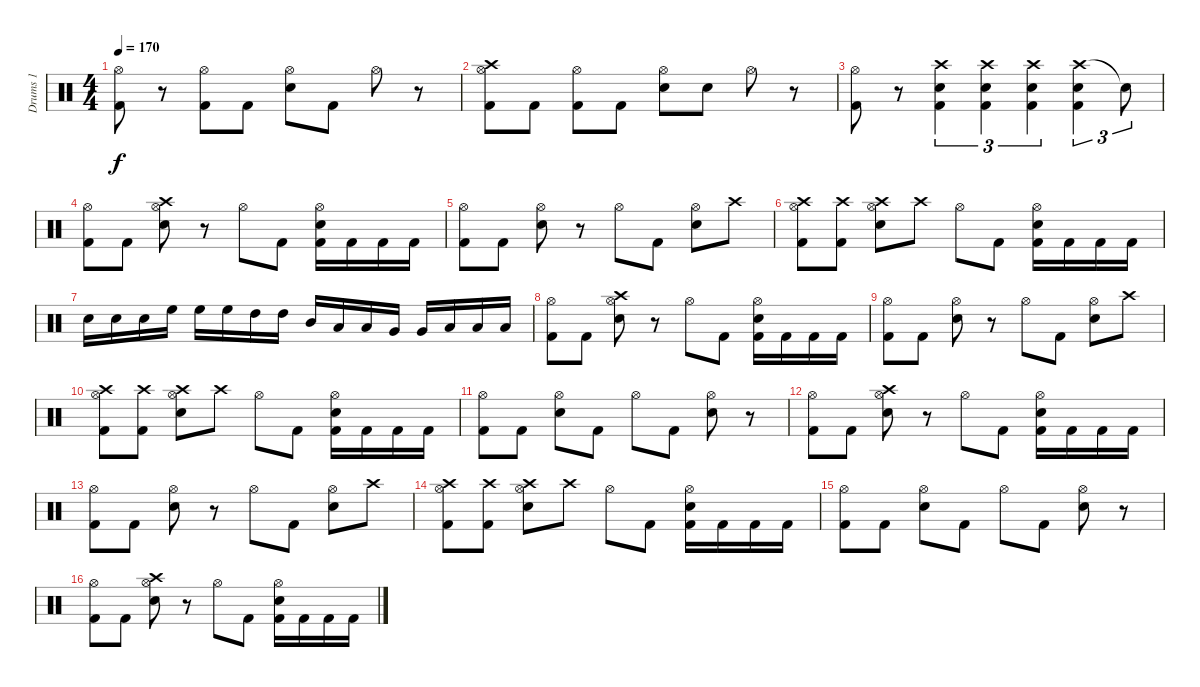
\track ("Drums 1" "Drums 1") {instrument percussion}
\staff {score}
\articulation defaults
\ts (4 4)
\tempo 170
\clef neutral
\ks c
("Hi-Hat (open)" "Kick (hit) 2").8{dy f} r.8 ("Hi-Hat (open)" "Kick (hit) 2").8 "Kick (hit) 2".8 ("Hi-Hat (open)" "Snare (hit) 2").8 "Kick (hit) 2".8 "Hi-Hat (open)".8 r.8 |
("Crash high (hit)" "Hi-Hat (open)" "Kick (hit) 2").8 "Kick (hit) 2".8 ("Hi-Hat (open)" "Kick (hit) 2").8 "Kick (hit) 2".8 ("Hi-Hat (open)" "Snare (hit) 2").8 "Snare (hit) 2".8 "Hi-Hat (open)".8 r.8 |
("Hi-Hat (open)" "Kick (hit) 2").8 r.8 ("Crash high (hit)" "Snare (hit) 2" "Kick (hit) 2").4{tu (3 2)} ("Crash high (hit)" "Snare (hit) 2" "Kick (hit) 2").4{tu (3 2)} ("Crash high (hit)" "Snare (hit) 2" "Kick (hit) 2").4{tu (3 2)} ("Crash high (hit)" "Snare (hit) 2" "Kick (hit) 2").4{tu (3 2)} "Snare (hit)"{t}.8{tu (3 2)} |
("Hi-Hat (open)" "Kick (hit) 2").8 "Kick (hit) 2".8 ("Crash high (hit)" "Hi-Hat (open)" "Electric Snare (hit)").8 r.8 "Hi-Hat (open)".8 "Kick (hit) 2".8 ("Hi-Hat (open)" "Electric Snare (hit)" "Kick (hit) 2").16 "Kick (hit) 2".16 "Kick (hit) 2".16 "Kick (hit) 2".16 |
("Hi-Hat (open)" "Kick (hit) 2").8 "Kick (hit) 2".8 ("Hi-Hat (open)" "Electric Snare (hit)").8 r.8 "Hi-Hat (open)".8 "Kick (hit) 2".8 ("Hi-Hat (open)" "Electric Snare (hit)").8 "Crash high (hit)".8 |
("Crash high (hit)" "Hi-Hat (open)" "Kick (hit) 2").8 ("Crash high (hit)" "Kick (hit) 2").8 ("Crash high (hit)" "Hi-Hat (open)" "Electric Snare (hit)").8 "Crash high (hit)".8 "Hi-Hat (open)".8 "Kick (hit) 2".8 ("Hi-Hat (open)" "Electric Snare (hit)" "Kick (hit) 2").16 "Kick (hit) 2".16 "Kick (hit) 2".16 "Kick (hit) 2".16 |
"Electric Snare (hit)".16 "Electric Snare (hit)".16 "Electric Snare (hit)".16 "High Floor Tom (hit)".16 "High Floor Tom (hit)".16 "High Floor Tom (hit)".16 "High Tom (hit)".16 "High Tom (hit)".16 "Mid Tom (hit)".16 "Low Tom (hit)".16 "Low Tom (hit)".16 "Very Low Tom (hit)".16 "Very Low Tom (hit)".16 "Low Floor Tom (hit)".16 "Low Floor Tom (hit)".16 "Low Floor Tom (hit)".16 |
("Hi-Hat (open)" "Kick (hit) 2").8 "Kick (hit) 2".8 ("Crash high (hit)" "Hi-Hat (open)" "Electric Snare (hit)").8 r.8 "Hi-Hat (open)".8 "Kick (hit) 2".8 ("Hi-Hat (open)" "Electric Snare (hit)" "Kick (hit) 2").16 "Kick (hit) 2".16 "Kick (hit) 2".16 "Kick (hit) 2".16 |
("Hi-Hat (open)" "Kick (hit) 2").8 "Kick (hit) 2".8 ("Hi-Hat (open)" "Electric Snare (hit)").8 r.8 "Hi-Hat (open)".8 "Kick (hit) 2".8 ("Hi-Hat (open)" "Electric Snare (hit)").8 "Crash high (hit)".8 |
("Crash high (hit)" "Hi-Hat (open)" "Kick (hit) 2").8 ("Crash high (hit)" "Kick (hit) 2").8 ("Crash high (hit)" "Hi-Hat (open)" "Electric Snare (hit)").8 "Crash high (hit)".8 "Hi-Hat (open)".8 "Kick (hit) 2".8 ("Hi-Hat (open)" "Electric Snare (hit)" "Kick (hit) 2").16 "Kick (hit) 2".16 "Kick (hit) 2".16 "Kick (hit) 2".16 |
("Hi-Hat (open)" "Kick (hit) 2").8 "Kick (hit) 2".8 ("Hi-Hat (open)" "Electric Snare (hit)").8 "Kick (hit) 2".8 "Hi-Hat (open)".8 "Kick (hit) 2".8 ("Hi-Hat (open)" "Electric Snare (hit)").8 r.8 |
("Hi-Hat (open)" "Kick (hit) 2").8 "Kick (hit) 2".8 ("Crash high (hit)" "Hi-Hat (open)" "Electric Snare (hit)").8 r.8 "Hi-Hat (open)".8 "Kick (hit) 2".8 ("Hi-Hat (open)" "Electric Snare (hit)" "Kick (hit) 2").16 "Kick (hit) 2".16 "Kick (hit) 2".16 "Kick (hit) 2".16 |
("Hi-Hat (open)" "Kick (hit) 2").8 "Kick (hit) 2".8 ("Hi-Hat (open)" "Electric Snare (hit)").8 r.8 "Hi-Hat (open)".8 "Kick (hit) 2".8 ("Hi-Hat (open)" "Electric Snare (hit)").8 "Crash high (hit)".8 |
("Crash high (hit)" "Hi-Hat (open)" "Kick (hit) 2").8 ("Crash high (hit)" "Kick (hit) 2").8 ("Crash high (hit)" "Hi-Hat (open)" "Electric Snare (hit)").8 "Crash high (hit)".8 "Hi-Hat (open)".8 "Kick (hit) 2".8 ("Hi-Hat (open)" "Electric Snare (hit)" "Kick (hit) 2").16 "Kick (hit) 2".16 "Kick (hit) 2".16 "Kick (hit) 2".16 |
("Hi-Hat (open)" "Kick (hit) 2").8 "Kick (hit) 2".8 ("Hi-Hat (open)" "Electric Snare (hit)").8 "Kick (hit) 2".8 "Hi-Hat (open)".8 "Kick (hit) 2".8 ("Hi-Hat (open)" "Electric Snare (hit)").8 r.8 |
("Hi-Hat (open)" "Kick (hit) 2").8 "Kick (hit) 2".8 ("Crash high (hit)" "Hi-Hat (open)" "Electric Snare (hit)").8 r.8 "Hi-Hat (open)".8 "Kick (hit) 2".8 ("Hi-Hat (open)" "Electric Snare (hit)" "Kick (hit) 2").16 "Kick (hit) 2".16 "Kick (hit) 2".16 "Kick (hit) 2".16
